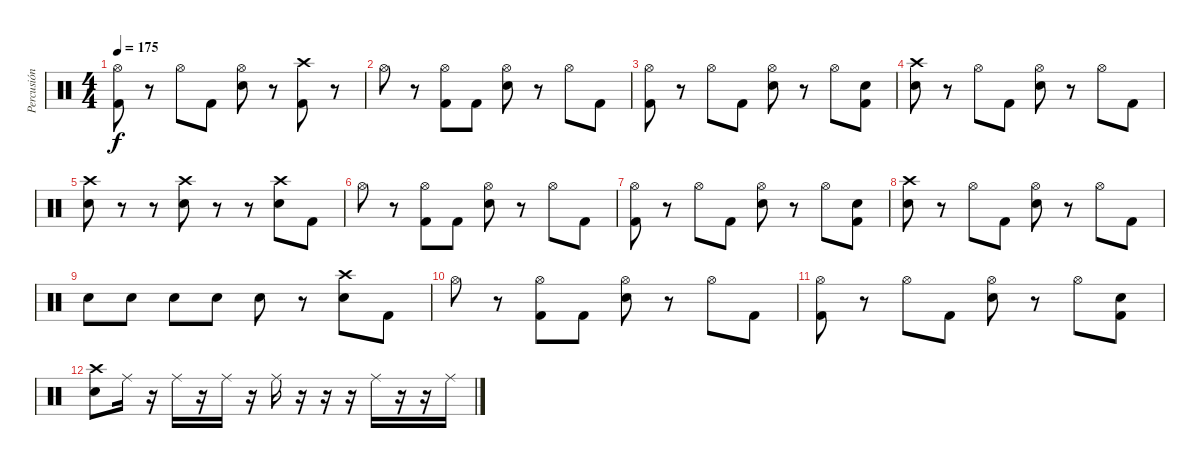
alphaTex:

\track ("Percusión" "Percusión") {instrument percussion}
\staff {score}
\articulation defaults
\ts (4 4)
\tempo 175
\clef neutral
\ks c
("Hi-Hat (open)" "Kick (hit) 2").8{dy f} r.8 "Hi-Hat (open)".8 "Kick (hit) 2".8 ("Hi-Hat (open)" "Electric Snare (hit)").8 r.8 ("Crash high (hit)" "Kick (hit) 2").8 r.8 |
"Hi-Hat (open)".8 r.8 ("Hi-Hat (open)" "Kick (hit) 2").8 "Kick (hit) 2".8 ("Hi-Hat (open)" "Electric Snare (hit)").8 r.8 "Hi-Hat (open)".8 "Kick (hit) 2".8 |
("Hi-Hat (open)" "Kick (hit) 2").8 r.8 "Hi-Hat (open)".8 "Kick (hit) 2".8 ("Electric Snare (hit)" "Hi-Hat (open)").8 r.8 "Hi-Hat (open)".8 ("Electric Snare (hit)" "Kick (hit) 2").8 |
("Crash high (hit)" "Electric Snare (hit)").8 r.8 "Hi-Hat (open)".8 "Kick (hit) 2".8 ("Hi-Hat (open)" "Electric Snare (hit)").8 r.8 "Hi-Hat (open)".8 "Kick (hit) 2".8 |
("Crash high (hit)" "Electric Snare (hit)").8 r.8 r.8 ("Electric Snare (hit)" "Crash high (hit)").8 r.8 r.8 ("Crash high (hit)" "Electric Snare (hit)").8 "Kick (hit) 2".8 |
"Hi-Hat (open)".8 r.8 ("Hi-Hat (open)" "Kick (hit) 2").8 "Kick (hit) 2".8 ("Hi-Hat (open)" "Electric Snare (hit)").8 r.8 "Hi-Hat (open)".8 "Kick (hit) 2".8 |
("Hi-Hat (open)" "Kick (hit) 2").8 r.8 "Hi-Hat (open)".8 "Kick (hit) 2".8 ("Electric Snare (hit)" "Hi-Hat (open)").8 r.8 "Hi-Hat (open)".8 ("Electric Snare (hit)" "Kick (hit) 2").8 |
("Crash high (hit)" "Electric Snare (hit)").8 r.8 "Hi-Hat (open)".8 "Kick (hit) 2".8 ("Hi-Hat (open)" "Electric Snare (hit)").8 r.8 "Hi-Hat (open)".8 "Kick (hit) 2".8 |
"Electric Snare (hit)".8 "Electric Snare (hit)".8 "Electric Snare (hit)".8 "Electric Snare (hit)".8 "Electric Snare (hit)".8 r.8 ("Crash high (hit)" "Electric Snare (hit)").8 "Kick (hit) 2".8 |
"Hi-Hat (open)".8 r.8 ("Hi-Hat (open)" "Kick (hit) 2").8 "Kick (hit) 2".8 ("Hi-Hat (open)" "Electric Snare (hit)").8 r.8 "Hi-Hat (open)".8 "Kick (hit) 2".8 |
("Hi-Hat (open)" "Kick (hit) 2").8 r.8 "Hi-Hat (open)".8 "Kick (hit) 2".8 ("Electric Snare (hit)" "Hi-Hat (open)").8 r.8 "Hi-Hat (open)".8 ("Electric Snare (hit)" "Kick (hit) 2").8 |
("Electric Snare (hit)" "Crash high (hit)").8 "Ride (middle)".16 r.16 "Ride (middle)".16 r.16 "Ride (middle)".16 r.16 "Ride (middle)".16 r.16 r.16 r.16 "Ride (middle)".16 r.16 r.16 "Ride (middle)".16
